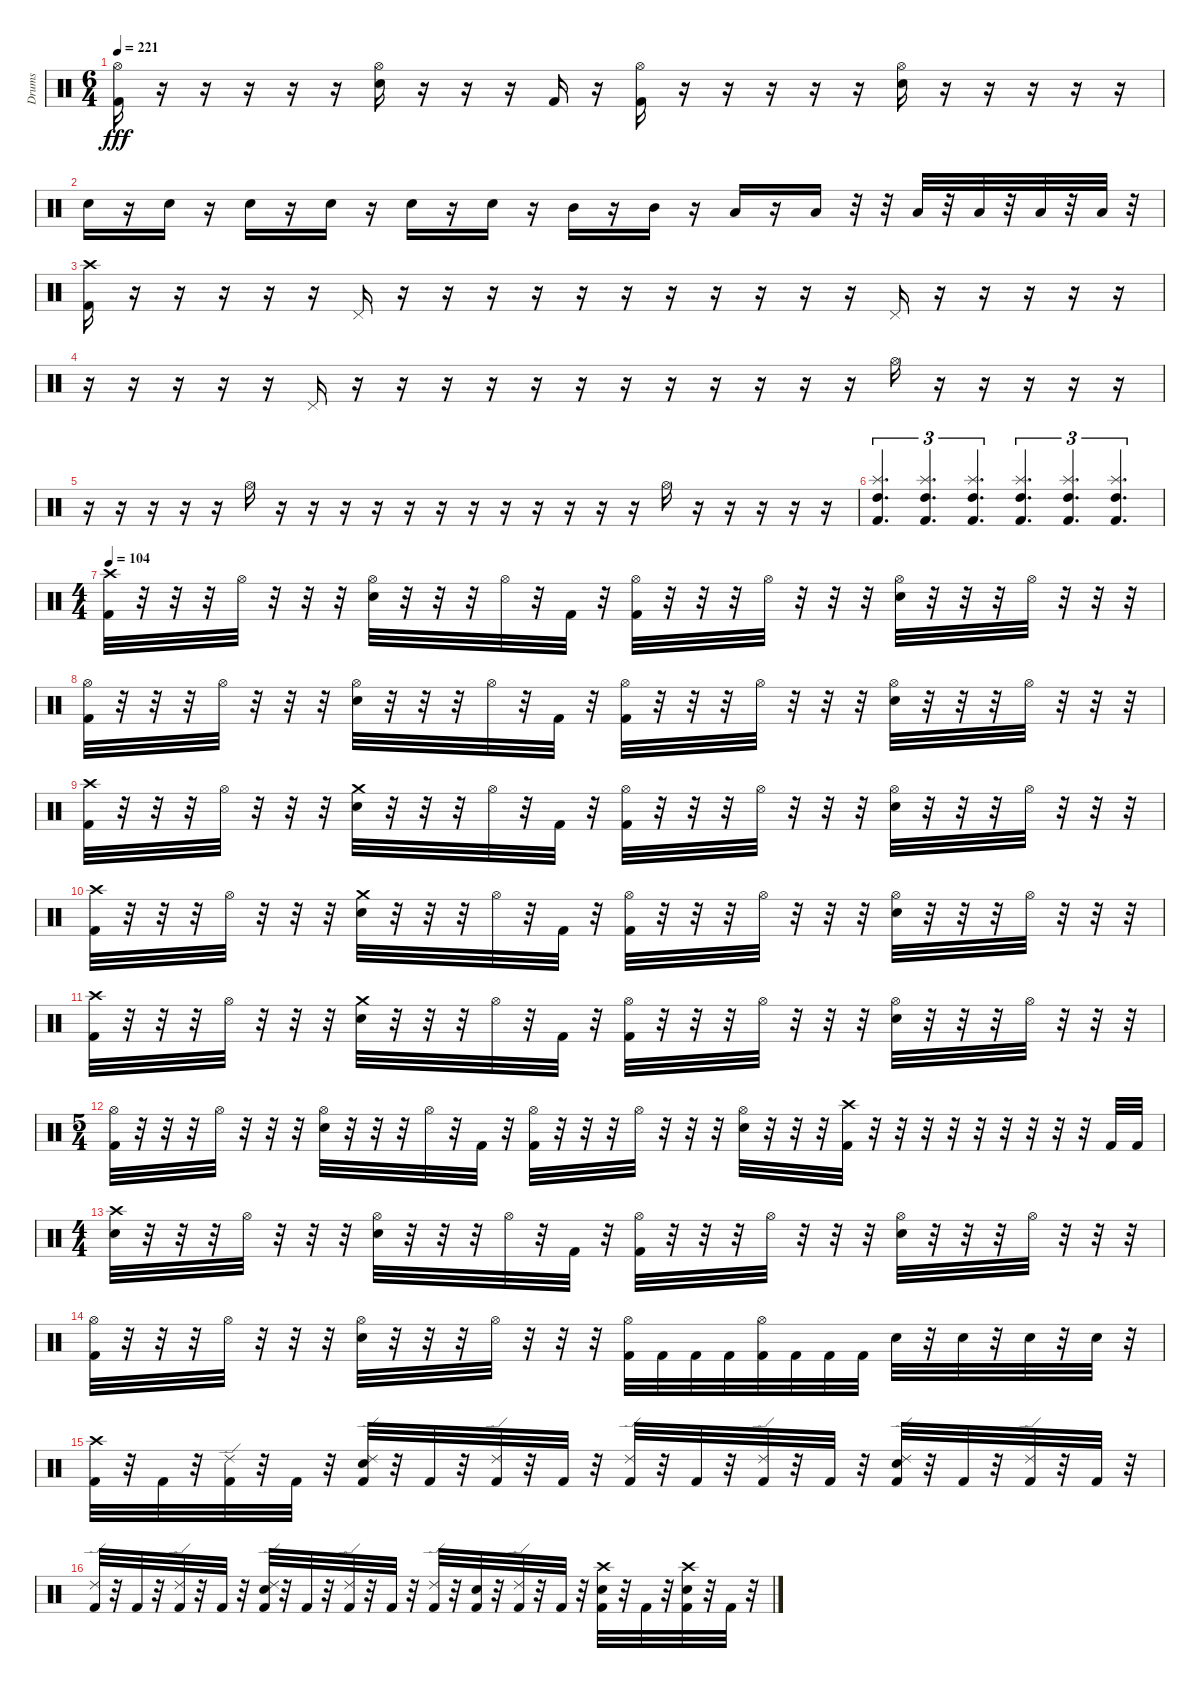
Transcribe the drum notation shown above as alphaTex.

\track ("Drums" "Drums") {instrument percussion}
\staff {score}
\articulation defaults
\ts (6 4)
\tempo 221
\clef neutral
\ks c
("Hi-Hat (open)" "Kick (hit) 2").16{dy fff} r.16 r.16 r.16 r.16 r.16 ("Hi-Hat (open)" "Snare (hit) 2").16 r.16 r.16 r.16 "Kick (hit) 2".16 r.16 ("Hi-Hat (open)" "Kick (hit) 2").16 r.16 r.16 r.16 r.16 r.16 ("Hi-Hat (open)" "Snare (hit) 2").16 r.16 r.16 r.16 r.16 r.16 |
"Snare (hit) 2".16 r.16 "Snare (hit) 2".16 r.16 "Snare (hit) 2".16 r.16 "Snare (hit) 2".16 r.16 "Snare (hit) 2".16 r.16 "Snare (hit) 2".16 r.16 "Mid Tom (hit)".16 r.16 "Mid Tom (hit)".16 r.16 "Low Tom (hit)".16 r.16 "Low Tom (hit)".16 r.32 r.32 "Low Tom (hit)".32 r.32 "Low Tom (hit)".32 r.32 "Low Tom (hit)".32 r.32 "Low Tom (hit)".32 r.32 |
("Crash high (hit)" "Kick (hit) 2").16 r.16 r.16 r.16 r.16 r.16 "Pedal Hi-Hat (hit)".16 r.16 r.16 r.16 r.16 r.16 r.16 r.16 r.16 r.16 r.16 r.16 "Pedal Hi-Hat (hit)".16 r.16 r.16 r.16 r.16 r.16 |
r.16 r.16 r.16 r.16 r.16 "Pedal Hi-Hat (hit)".16 r.16 r.16 r.16 r.16 r.16 r.16 r.16 r.16 r.16 r.16 r.16 r.16 "Hi-Hat (open)".16 r.16 r.16 r.16 r.16 r.16 |
r.16 r.16 r.16 r.16 r.16 "Hi-Hat (open)".16 r.16 r.16 r.16 r.16 r.16 r.16 r.16 r.16 r.16 r.16 r.16 r.16 "Hi-Hat (open)".16 r.16 r.16 r.16 r.16 r.16 |
("Splash (hit)" "High Tom (hit)" "Kick (hit) 2").4{d tu (3 2)} ("Splash (hit)" "High Tom (hit)" "Kick (hit) 2").4{d tu (3 2)} ("Splash (hit)" "High Tom (hit)" "Kick (hit) 2").4{d tu (3 2)} ("Splash (hit)" "High Tom (hit)" "Kick (hit) 2").4{d tu (3 2)} ("Splash (hit)" "High Tom (hit)" "Kick (hit) 2").4{d tu (3 2)} ("Splash (hit)" "High Tom (hit)" "Kick (hit) 2").4{d tu (3 2)} |
\ts (4 4)
\tempo 104
("Crash high (hit)" "Kick (hit) 2").32 r.32 r.32 r.32 "Hi-Hat (open)".32 r.32 r.32 r.32 ("Hi-Hat (open)" "Snare (hit) 2").32 r.32 r.32 r.32 "Hi-Hat (open)".32 r.32 "Kick (hit) 2".32 r.32 ("Hi-Hat (open)" "Kick (hit) 2").32 r.32 r.32 r.32 "Hi-Hat (open)".32 r.32 r.32 r.32 ("Hi-Hat (open)" "Snare (hit) 2").32 r.32 r.32 r.32 "Hi-Hat (open)".32 r.32 r.32 r.32 |
("Hi-Hat (open)" "Kick (hit) 2").32 r.32 r.32 r.32 "Hi-Hat (open)".32 r.32 r.32 r.32 ("Hi-Hat (open)" "Snare (hit) 2").32 r.32 r.32 r.32 "Hi-Hat (open)".32 r.32 "Kick (hit) 2".32 r.32 ("Hi-Hat (open)" "Kick (hit) 2").32 r.32 r.32 r.32 "Hi-Hat (open)".32 r.32 r.32 r.32 ("Hi-Hat (open)" "Snare (hit) 2").32 r.32 r.32 r.32 "Hi-Hat (open)".32 r.32 r.32 r.32 |
("Crash high (hit)" "Kick (hit) 2").32 r.32 r.32 r.32 "Hi-Hat (open)".32 r.32 r.32 r.32 ("Crash medium (hit)" "Snare (hit) 2").32 r.32 r.32 r.32 "Hi-Hat (open)".32 r.32 "Kick (hit) 2".32 r.32 ("Hi-Hat (open)" "Kick (hit) 2").32 r.32 r.32 r.32 "Hi-Hat (open)".32 r.32 r.32 r.32 ("Hi-Hat (open)" "Snare (hit) 2").32 r.32 r.32 r.32 "Hi-Hat (open)".32 r.32 r.32 r.32 |
("Crash high (hit)" "Kick (hit) 2").32 r.32 r.32 r.32 "Hi-Hat (open)".32 r.32 r.32 r.32 ("Crash medium (hit)" "Snare (hit) 2").32 r.32 r.32 r.32 "Hi-Hat (open)".32 r.32 "Kick (hit) 2".32 r.32 ("Hi-Hat (open)" "Kick (hit) 2").32 r.32 r.32 r.32 "Hi-Hat (open)".32 r.32 r.32 r.32 ("Hi-Hat (open)" "Snare (hit) 2").32 r.32 r.32 r.32 "Hi-Hat (open)".32 r.32 r.32 r.32 |
("Crash high (hit)" "Kick (hit) 2").32 r.32 r.32 r.32 "Hi-Hat (open)".32 r.32 r.32 r.32 ("Crash medium (hit)" "Snare (hit) 2").32 r.32 r.32 r.32 "Hi-Hat (open)".32 r.32 "Kick (hit) 2".32 r.32 ("Hi-Hat (open)" "Kick (hit) 2").32 r.32 r.32 r.32 "Hi-Hat (open)".32 r.32 r.32 r.32 ("Hi-Hat (open)" "Snare (hit) 2").32 r.32 r.32 r.32 "Hi-Hat (open)".32 r.32 r.32 r.32 |
\ts (5 4)
("Hi-Hat (open)" "Kick (hit) 2").32 r.32 r.32 r.32 "Hi-Hat (open)".32 r.32 r.32 r.32 ("Hi-Hat (open)" "Snare (hit) 2").32 r.32 r.32 r.32 "Hi-Hat (open)".32 r.32 "Kick (hit) 2".32 r.32 ("Hi-Hat (open)" "Kick (hit) 2").32 r.32 r.32 r.32 "Hi-Hat (open)".32 r.32 r.32 r.32 ("Hi-Hat (open)" "Snare (hit) 2").32 r.32 r.32 r.32 ("Crash high (hit)" "Kick (hit) 2").32 r.32 r.32 r.32 r.32 r.32 r.32 r.32 r.32 r.32 "Kick (hit) 2".32 "Kick (hit) 2".32 |
\ts (4 4)
("Crash high (hit)" "Snare (hit) 2").32 r.32 r.32 r.32 "Hi-Hat (open)".32 r.32 r.32 r.32 ("Hi-Hat (open)" "Snare (hit) 2").32 r.32 r.32 r.32 "Hi-Hat (open)".32 r.32 "Kick (hit) 2".32 r.32 ("Hi-Hat (open)" "Kick (hit) 2").32 r.32 r.32 r.32 "Hi-Hat (open)".32 r.32 r.32 r.32 ("Hi-Hat (open)" "Snare (hit) 2").32 r.32 r.32 r.32 "Hi-Hat (open)".32 r.32 r.32 r.32 |
("Hi-Hat (open)" "Kick (hit) 2").32 r.32 r.32 r.32 "Hi-Hat (open)".32 r.32 r.32 r.32 ("Hi-Hat (open)" "Snare (hit) 2").32 r.32 r.32 r.32 "Hi-Hat (open)".32 r.32 r.32 r.32 ("Hi-Hat (open)" "Kick (hit) 2").32 "Kick (hit) 2".32 "Kick (hit) 2".32 "Kick (hit) 2".32 ("Hi-Hat (open)" "Kick (hit) 2").32 "Kick (hit) 2".32 "Kick (hit) 2".32 "Kick (hit) 2".32 "Snare (hit) 2".32 r.32 "Snare (hit) 2".32 r.32 "Snare (hit) 2".32 r.32 "Snare (hit) 2".32 r.32 |
("Crash high (hit)" "Kick (hit) 2").32 r.32 "Kick (hit) 2".32 r.32 ("Ride (edge) 2" "Kick (hit) 2").32 r.32 "Kick (hit) 2".32 r.32 ("Ride (edge) 2" "Snare (hit) 2" "Kick (hit) 2").32 r.32 "Kick (hit) 2".32 r.32 ("Ride (edge) 2" "Kick (hit) 2").32 r.32 "Kick (hit) 2".32 r.32 ("Ride (edge) 2" "Kick (hit) 2").32 r.32 "Kick (hit) 2".32 r.32 ("Ride (edge) 2" "Kick (hit) 2").32 r.32 "Kick (hit) 2".32 r.32 ("Ride (edge) 2" "Snare (hit) 2" "Kick (hit) 2").32 r.32 "Kick (hit) 2".32 r.32 ("Ride (edge) 2" "Kick (hit) 2").32 r.32 "Kick (hit) 2".32 r.32 |
("Ride (edge) 2" "Kick (hit) 2").32 r.32 "Kick (hit) 2".32 r.32 ("Ride (edge) 2" "Kick (hit) 2").32 r.32 "Kick (hit) 2".32 r.32 ("Ride (edge) 2" "Snare (hit) 2" "Kick (hit) 2").32 r.32 "Kick (hit) 2".32 r.32 ("Ride (edge) 2" "Kick (hit) 2").32 r.32 "Kick (hit) 2".32 r.32 ("Ride (edge) 2" "Kick (hit) 2").32 r.32 ("Snare (hit) 2" "Kick (hit) 2").32 r.32 ("Ride (edge) 2" "Kick (hit) 2").32 r.32 "Kick (hit) 2".32 r.32 ("Crash high (hit)" "Snare (hit) 2" "Kick (hit) 2").32 r.32 "Kick (hit) 2".32 r.32 ("Crash high (hit)" "Snare (hit) 2" "Kick (hit) 2").32 r.32 "Kick (hit) 2".32 r.32
